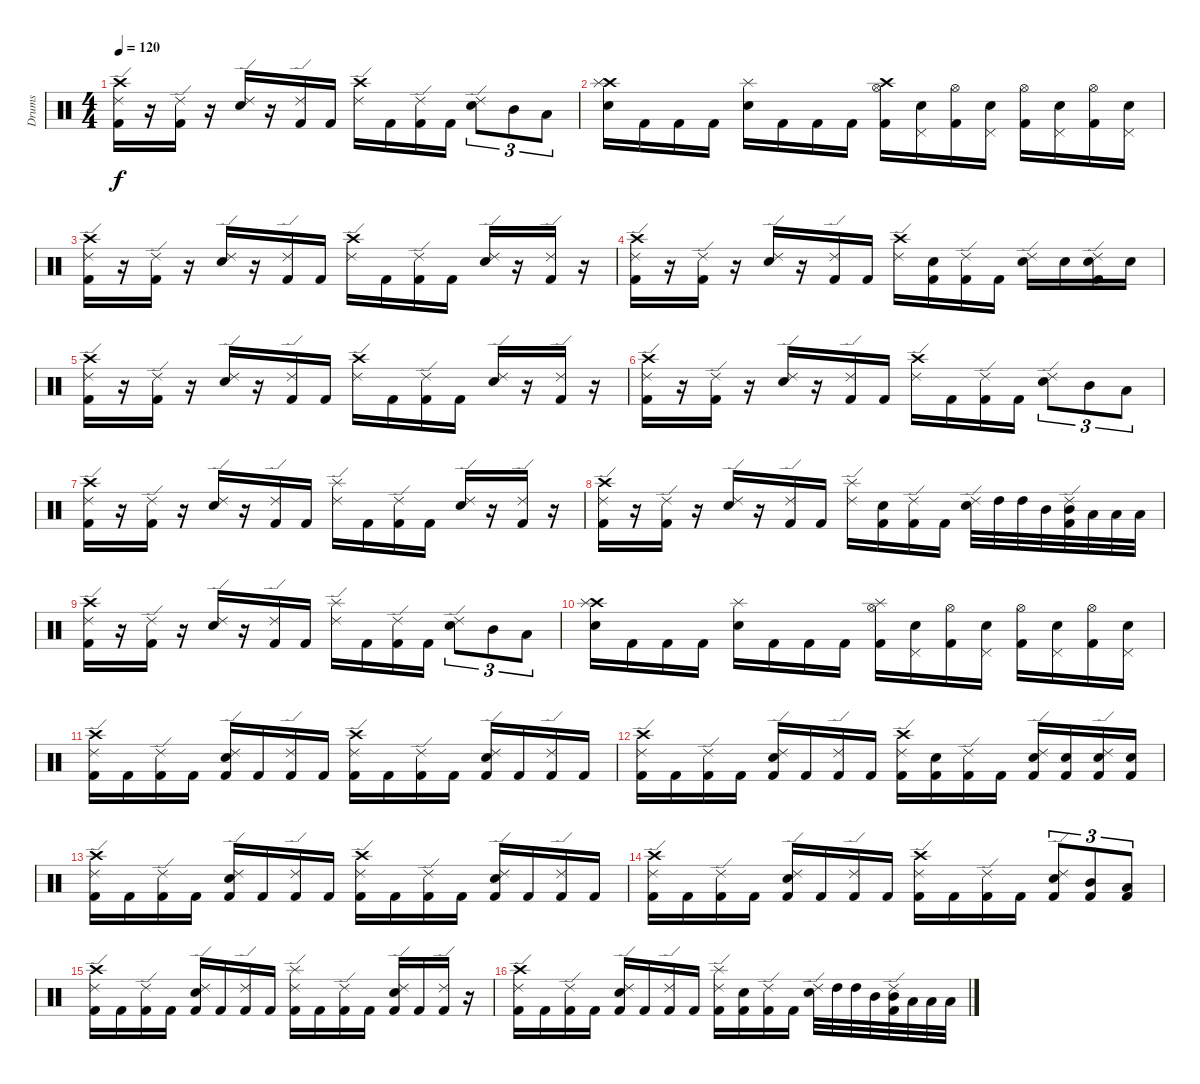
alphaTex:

\track ("Drums" "Drums") {instrument percussion}
\staff {score}
\articulation defaults
\ts (4 4)
\tempo 120
\clef neutral
\ks c
("Crash high (hit)" "Ride (edge) 2" "Kick (hit) 2").16{dy f} r.16 ("Ride (edge) 2" "Kick (hit) 2").16 r.16 ("Ride (edge) 2" "Electric Snare (hit)").16 r.16 ("Ride (edge) 2" "Kick (hit) 2").16 "Kick (hit) 2".16 ("Crash high (hit)" "Ride (edge) 2").16 "Kick (hit) 2".16 ("Ride (edge) 2" "Kick (hit) 2").16 "Kick (hit) 2".16 ("Ride (edge) 2" "Electric Snare (hit)").8{tu (3 2)} "Mid Tom (hit)".8{tu (3 2)} "Low Tom (hit)".8{tu (3 2)} |
("Crash high (hit)" "Splash (hit)" "Electric Snare (hit)").16 "Kick (hit) 2".16 "Kick (hit) 2".16 "Kick (hit) 2".16 ("Splash (hit)" "Electric Snare (hit)").16 "Kick (hit) 2".16 "Kick (hit) 2".16 "Kick (hit) 2".16 ("Crash high (hit)" "Hi-Hat (open)" "Kick (hit) 2").16 ("Pedal Hi-Hat (hit)" "Electric Snare (hit)").16 ("Hi-Hat (open)" "Kick (hit) 2").16 ("Pedal Hi-Hat (hit)" "Electric Snare (hit)").16 ("Hi-Hat (open)" "Kick (hit) 2").16 ("Pedal Hi-Hat (hit)" "Electric Snare (hit)").16 ("Hi-Hat (open)" "Kick (hit) 2").16 ("Pedal Hi-Hat (hit)" "Electric Snare (hit)").16 |
("Crash high (hit)" "Ride (edge) 2" "Kick (hit) 2").16{balance 0} r.16 ("Ride (edge) 2" "Kick (hit) 2").16 r.16 ("Ride (edge) 2" "Electric Snare (hit)").16 r.16 ("Ride (edge) 2" "Kick (hit) 2").16 "Kick (hit) 2".16 ("Crash high (hit)" "Ride (edge) 2").16{balance 16} "Kick (hit) 2".16 ("Ride (edge) 2" "Kick (hit) 2").16 "Kick (hit) 2".16 ("Ride (edge) 2" "Electric Snare (hit)").16 r.16 ("Ride (edge) 2" "Kick (hit) 2").16 r.16 |
("Crash high (hit)" "Ride (edge) 2" "Kick (hit) 2").16{balance 0} r.16 ("Ride (edge) 2" "Kick (hit) 2").16 r.16 ("Ride (edge) 2" "Electric Snare (hit)").16 r.16 ("Ride (edge) 2" "Kick (hit) 2").16 "Kick (hit) 2".16 ("Crash high (hit)" "Ride (edge) 2").16{balance 16} ("Electric Snare (hit)" "Kick (hit) 2").16 ("Ride (edge) 2" "Kick (hit) 2").16 "Kick (hit) 2".16 ("Ride (edge) 2" "Electric Snare (hit)").16 "Electric Snare (hit)".16 ("Ride (edge) 2" "Electric Snare (hit)" "Kick (hit) 2").16 "Electric Snare (hit)".16 |
("Crash high (hit)" "Ride (edge) 2" "Kick (hit) 2").16{balance 0} r.16 ("Ride (edge) 2" "Kick (hit) 2").16 r.16 ("Ride (edge) 2" "Electric Snare (hit)").16 r.16 ("Ride (edge) 2" "Kick (hit) 2").16 "Kick (hit) 2".16 ("Crash high (hit)" "Ride (edge) 2").16{balance 16} "Kick (hit) 2".16 ("Ride (edge) 2" "Kick (hit) 2").16 "Kick (hit) 2".16 ("Ride (edge) 2" "Electric Snare (hit)").16 r.16 ("Ride (edge) 2" "Kick (hit) 2").16 r.16 |
("Crash high (hit)" "Ride (edge) 2" "Kick (hit) 2").16{balance 0} r.16 ("Ride (edge) 2" "Kick (hit) 2").16 r.16 ("Ride (edge) 2" "Electric Snare (hit)").16 r.16 ("Ride (edge) 2" "Kick (hit) 2").16 "Kick (hit) 2".16 ("Crash high (hit)" "Ride (edge) 2").16{balance 16} "Kick (hit) 2".16 ("Ride (edge) 2" "Kick (hit) 2").16 "Kick (hit) 2".16 ("Ride (edge) 2" "Electric Snare (hit)").8{tu (3 2)} "Mid Tom (hit)".8{tu (3 2)} "Low Tom (hit)".8{tu (3 2)} |
("Crash high (hit)" "Ride (edge) 2" "Kick (hit) 2").16{balance 0} r.16 ("Ride (edge) 2" "Kick (hit) 2").16 r.16 ("Ride (edge) 2" "Electric Snare (hit)").16 r.16 ("Ride (edge) 2" "Kick (hit) 2").16 "Kick (hit) 2".16 ("Splash (hit)" "Ride (edge) 2").16{balance 16} "Kick (hit) 2".16 ("Ride (edge) 2" "Kick (hit) 2").16 "Kick (hit) 2".16 ("Ride (edge) 2" "Electric Snare (hit)").16 r.16 ("Ride (edge) 2" "Kick (hit) 2").16 r.16 |
("Crash high (hit)" "Ride (edge) 2" "Kick (hit) 2").16{balance 0} r.16 ("Ride (edge) 2" "Kick (hit) 2").16 r.16 ("Ride (edge) 2" "Electric Snare (hit)").16 r.16 ("Ride (edge) 2" "Kick (hit) 2").16 "Kick (hit) 2".16 ("Splash (hit)" "Ride (edge) 2").16{balance 16} ("Electric Snare (hit)" "Kick (hit) 2").16 ("Ride (edge) 2" "Kick (hit) 2").16 "Kick (hit) 2".16 ("Ride (edge) 2" "Electric Snare (hit)").32 "High Tom (hit)".32 "High Tom (hit)".32 "Mid Tom (hit)".32 ("Ride (edge) 2" "Mid Tom (hit)" "Kick (hit) 2").32 "Low Tom (hit)".32 "Low Tom (hit)".32 "Low Tom (hit)".32 |
("Crash high (hit)" "Ride (edge) 2" "Kick (hit) 2").16{balance 0} r.16 ("Ride (edge) 2" "Kick (hit) 2").16 r.16 ("Ride (edge) 2" "Electric Snare (hit)").16 r.16 ("Ride (edge) 2" "Kick (hit) 2").16 "Kick (hit) 2".16 ("Splash (hit)" "Ride (edge) 2").16{balance 16} "Kick (hit) 2".16 ("Ride (edge) 2" "Kick (hit) 2").16 "Kick (hit) 2".16 ("Ride (edge) 2" "Electric Snare (hit)").8{tu (3 2)} "Mid Tom (hit)".8{tu (3 2)} "Low Tom (hit)".8{tu (3 2)} |
("Crash high (hit)" "Splash (hit)" "Electric Snare (hit)").16{balance 0} "Kick (hit) 2".16 "Kick (hit) 2".16 "Kick (hit) 2".16 ("Splash (hit)" "Electric Snare (hit)").16 "Kick (hit) 2".16 "Kick (hit) 2".16 "Kick (hit) 2".16 ("Splash (hit)" "Hi-Hat (open)" "Kick (hit) 2").16{balance 16} ("Pedal Hi-Hat (hit)" "Electric Snare (hit)").16 ("Hi-Hat (open)" "Kick (hit) 2").16 ("Pedal Hi-Hat (hit)" "Electric Snare (hit)").16 ("Hi-Hat (open)" "Kick (hit) 2").16 ("Pedal Hi-Hat (hit)" "Electric Snare (hit)").16 ("Hi-Hat (open)" "Kick (hit) 2").16 ("Pedal Hi-Hat (hit)" "Electric Snare (hit)").16 |
("Crash high (hit)" "Ride (edge) 2" "Kick (hit) 2").16{balance 0} "Kick (hit) 2".16 ("Ride (edge) 2" "Kick (hit) 2").16 "Kick (hit) 2".16 ("Ride (edge) 2" "Electric Snare (hit)" "Kick (hit) 2").16 "Kick (hit) 2".16 ("Ride (edge) 2" "Kick (hit) 2").16 "Kick (hit) 2".16 ("Crash high (hit)" "Ride (edge) 2" "Kick (hit) 2").16{balance 16} "Kick (hit) 2".16 ("Ride (edge) 2" "Kick (hit) 2").16 "Kick (hit) 2".16 ("Ride (edge) 2" "Electric Snare (hit)" "Kick (hit) 2").16 "Kick (hit) 2".16 ("Ride (edge) 2" "Kick (hit) 2").16 "Kick (hit) 2".16 |
("Crash high (hit)" "Ride (edge) 2" "Kick (hit) 2").16{balance 0} "Kick (hit) 2".16 ("Ride (edge) 2" "Kick (hit) 2").16 "Kick (hit) 2".16 ("Ride (edge) 2" "Electric Snare (hit)" "Kick (hit) 2").16 "Kick (hit) 2".16 ("Ride (edge) 2" "Kick (hit) 2").16 "Kick (hit) 2".16 ("Crash high (hit)" "Ride (edge) 2" "Kick (hit) 2").16{balance 16} ("Electric Snare (hit)" "Kick (hit) 2").16 ("Ride (edge) 2" "Kick (hit) 2").16 "Kick (hit) 2".16 ("Ride (edge) 2" "Electric Snare (hit)" "Kick (hit) 2").16 ("Electric Snare (hit)" "Kick (hit) 2").16 ("Ride (edge) 2" "Electric Snare (hit)" "Kick (hit) 2").16 ("Electric Snare (hit)" "Kick (hit) 2").16 |
("Crash high (hit)" "Ride (edge) 2" "Kick (hit) 2").16{balance 0} "Kick (hit) 2".16 ("Ride (edge) 2" "Kick (hit) 2").16 "Kick (hit) 2".16 ("Ride (edge) 2" "Electric Snare (hit)" "Kick (hit) 2").16 "Kick (hit) 2".16 ("Ride (edge) 2" "Kick (hit) 2").16 "Kick (hit) 2".16 ("Crash high (hit)" "Ride (edge) 2" "Kick (hit) 2").16{volume 8 balance 16} "Kick (hit) 2".16 ("Ride (edge) 2" "Kick (hit) 2").16 "Kick (hit) 2".16 ("Ride (edge) 2" "Electric Snare (hit)" "Kick (hit) 2").16 "Kick (hit) 2".16 ("Ride (edge) 2" "Kick (hit) 2").16 "Kick (hit) 2".16 |
("Crash high (hit)" "Ride (edge) 2" "Kick (hit) 2").16{balance 0} "Kick (hit) 2".16 ("Ride (edge) 2" "Kick (hit) 2").16 "Kick (hit) 2".16 ("Ride (edge) 2" "Electric Snare (hit)" "Kick (hit) 2").16 "Kick (hit) 2".16 ("Ride (edge) 2" "Kick (hit) 2").16 "Kick (hit) 2".16 ("Crash high (hit)" "Ride (edge) 2" "Kick (hit) 2").16{balance 16} "Kick (hit) 2".16 ("Ride (edge) 2" "Kick (hit) 2").16 "Kick (hit) 2".16 ("Ride (edge) 2" "Electric Snare (hit)" "Kick (hit) 2").8{tu (3 2)} ("Mid Tom (hit)" "Kick (hit) 2").8{tu (3 2)} ("Low Tom (hit)" "Kick (hit) 2").8{tu (3 2)} |
("Crash high (hit)" "Ride (edge) 2" "Kick (hit) 2").16{balance 0} "Kick (hit) 2".16 ("Ride (edge) 2" "Kick (hit) 2").16 "Kick (hit) 2".16 ("Ride (edge) 2" "Electric Snare (hit)" "Kick (hit) 2").16 "Kick (hit) 2".16 ("Ride (edge) 2" "Kick (hit) 2").16 "Kick (hit) 2".16 ("Splash (hit)" "Ride (edge) 2" "Kick (hit) 2").16{balance 16} "Kick (hit) 2".16 ("Ride (edge) 2" "Kick (hit) 2").16 "Kick (hit) 2".16 ("Ride (edge) 2" "Electric Snare (hit)" "Kick (hit) 2").16 "Kick (hit) 2".16 ("Ride (edge) 2" "Kick (hit) 2").16 r.16 |
("Crash high (hit)" "Ride (edge) 2" "Kick (hit) 2").16{volume 0 balance 0} "Kick (hit) 2".16 ("Ride (edge) 2" "Kick (hit) 2").16 "Kick (hit) 2".16 ("Ride (edge) 2" "Electric Snare (hit)" "Kick (hit) 2").16 "Kick (hit) 2".16 ("Ride (edge) 2" "Kick (hit) 2").16 "Kick (hit) 2".16 ("Splash (hit)" "Ride (edge) 2" "Kick (hit) 2").16{balance 16} ("Electric Snare (hit)" "Kick (hit) 2").16 ("Ride (edge) 2" "Kick (hit) 2").16 "Kick (hit) 2".16 ("Ride (edge) 2" "Electric Snare (hit)").32 "High Tom (hit)".32 "High Tom (hit)".32 "Mid Tom (hit)".32 ("Ride (edge) 2" "Mid Tom (hit)" "Kick (hit) 2").32 "Low Tom (hit)".32 "Low Tom (hit)".32 "Low Tom (hit)".32
